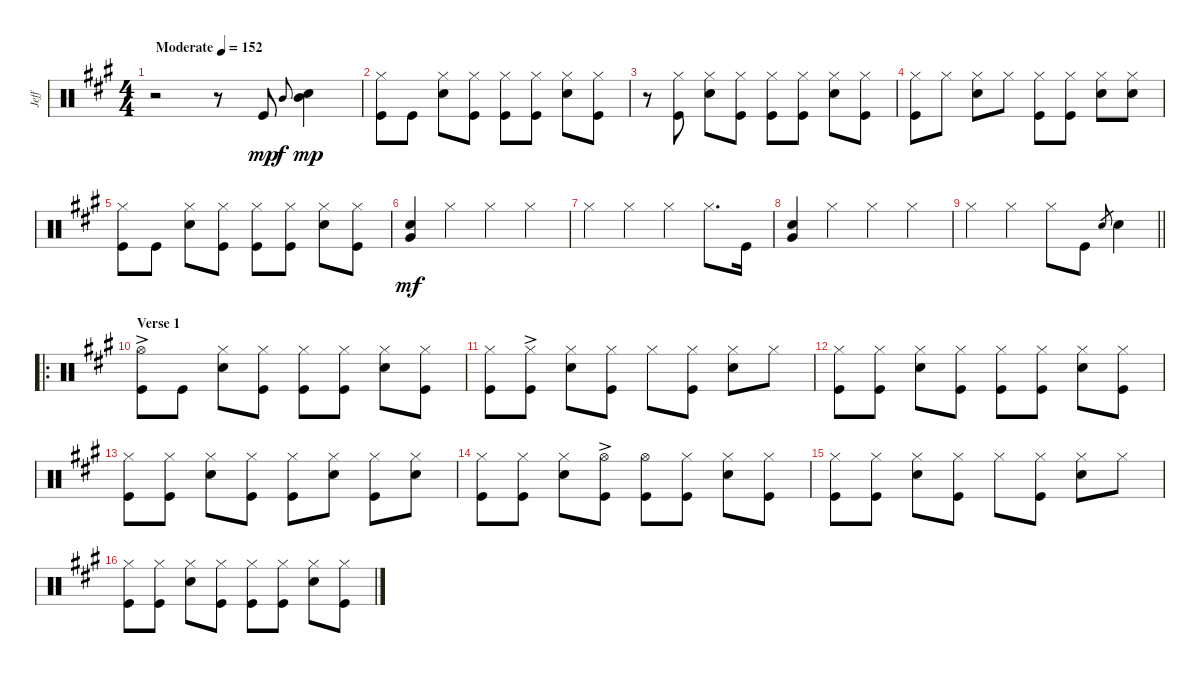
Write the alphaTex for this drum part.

\track ("Jeff" "Jeff") {instrument percussion}
\staff {score}
\articulation defaults
\ts (4 4)
\tempo (152 "Moderate")
\clef neutral
\ks a
r.2{dy mp} r.8 "Kick (hit)".8 "Mid Tom (hit)".8{gr onbeat dy f} ("Snare (hit) 2" "Mid Tom (hit)").4{dy mp} |
("Hi-Hat (closed)" "Kick (hit)").8 "Kick (hit)".8 ("Snare (hit) 2" "Hi-Hat (closed)").8 ("Hi-Hat (closed)" "Kick (hit)").8 ("Hi-Hat (closed)" "Kick (hit)").8 ("Hi-Hat (closed)" "Kick (hit)").8 ("Snare (hit) 2" "Hi-Hat (closed)").8 ("Hi-Hat (closed)" "Kick (hit)").8 |
r.8 ("Hi-Hat (closed)" "Kick (hit)").8 ("Snare (hit) 2" "Hi-Hat (closed)").8 ("Hi-Hat (closed)" "Kick (hit)").8 ("Hi-Hat (closed)" "Kick (hit)").8 ("Hi-Hat (closed)" "Kick (hit)").8 ("Snare (hit) 2" "Hi-Hat (closed)").8 ("Hi-Hat (closed)" "Kick (hit)").8 |
("Hi-Hat (closed)" "Kick (hit)").8 "Hi-Hat (closed)".8 ("Snare (hit) 2" "Hi-Hat (closed)").8 "Hi-Hat (closed)".8 ("Hi-Hat (closed)" "Kick (hit)").8 ("Hi-Hat (closed)" "Kick (hit)").8 ("Snare (hit) 2" "Hi-Hat (closed)").8 ("Snare (hit) 2" "Hi-Hat (closed)").8 |
("Hi-Hat (closed)" "Kick (hit)").8 "Kick (hit)".8 ("Snare (hit) 2" "Hi-Hat (closed)").8 ("Hi-Hat (closed)" "Kick (hit)").8 ("Hi-Hat (closed)" "Kick (hit)").8 ("Hi-Hat (closed)" "Kick (hit)").8 ("Snare (hit) 2" "Hi-Hat (closed)").8 ("Hi-Hat (closed)" "Kick (hit)").8 |
("Snare (hit) 2" "Very Low Tom (hit)").4{dy mf} "Hi-Hat (closed)".4 "Hi-Hat (closed)".4 "Hi-Hat (closed)".4 |
"Hi-Hat (closed)".4 "Hi-Hat (closed)".4 "Hi-Hat (closed)".4 "Hi-Hat (closed)".8{d} "Kick (hit)".16 |
("Snare (hit) 2" "Very Low Tom (hit)").4 "Hi-Hat (closed)".4 "Hi-Hat (closed)".4 "Hi-Hat (closed)".4 |
\barLineRight lightlight "Hi-Hat (closed)".4 "Hi-Hat (closed)".4 "Hi-Hat (closed)".8 "Kick (hit)".8 "Snare (hit) 2".8{gr} "Snare (hit) 2".4
|
\ro
\section ("" "Verse 1")
("Kick (hit)" "Hi-Hat (open)"{ac}).8 "Kick (hit)".8 ("Snare (hit) 2" "Hi-Hat (closed)").8 ("Kick (hit)" "Hi-Hat (closed)").8 ("Kick (hit)" "Hi-Hat (closed)").8 ("Kick (hit)" "Hi-Hat (closed)").8 ("Snare (hit) 2" "Hi-Hat (closed)").8 ("Kick (hit)" "Hi-Hat (closed)").8 |
("Kick (hit)" "Hi-Hat (closed)").8 ("Kick (hit)" "Hi-Hat (closed)"{ac}).8 ("Snare (hit) 2" "Hi-Hat (closed)").8 ("Kick (hit)" "Hi-Hat (closed)").8 "Hi-Hat (closed)".8 ("Kick (hit)" "Hi-Hat (closed)").8 ("Snare (hit) 2" "Hi-Hat (closed)").8 "Hi-Hat (closed)".8 |
("Hi-Hat (closed)" "Kick (hit)").8 ("Hi-Hat (closed)" "Kick (hit)").8 ("Hi-Hat (closed)" "Snare (hit) 2").8 ("Hi-Hat (closed)" "Kick (hit)").8 ("Hi-Hat (closed)" "Kick (hit)").8 ("Hi-Hat (closed)" "Kick (hit)").8 ("Hi-Hat (closed)" "Snare (hit) 2").8 ("Hi-Hat (closed)" "Kick (hit)").8 |
("Hi-Hat (closed)" "Kick (hit)").8 ("Hi-Hat (closed)" "Kick (hit)").8 ("Hi-Hat (closed)" "Snare (hit) 2").8 ("Hi-Hat (closed)" "Kick (hit)").8 ("Hi-Hat (closed)" "Kick (hit)").8 ("Hi-Hat (closed)" "Snare (hit) 2").8 ("Hi-Hat (closed)" "Kick (hit)").8 ("Hi-Hat (closed)" "Snare (hit) 2").8 |
("Hi-Hat (closed)" "Kick (hit)").8 ("Hi-Hat (closed)" "Kick (hit)").8 ("Hi-Hat (closed)" "Snare (hit) 2").8 ("Hi-Hat (open)"{ac} "Kick (hit)").8 ("Hi-Hat (open)" "Kick (hit)").8 ("Hi-Hat (closed)" "Kick (hit)").8 ("Hi-Hat (closed)" "Snare (hit) 2").8 ("Hi-Hat (closed)" "Kick (hit)").8 |
("Hi-Hat (closed)" "Kick (hit)").8 ("Hi-Hat (closed)" "Kick (hit)").8 ("Hi-Hat (closed)" "Snare (hit) 2").8 ("Hi-Hat (closed)" "Kick (hit)").8 "Hi-Hat (closed)".8 ("Hi-Hat (closed)" "Kick (hit)").8 ("Hi-Hat (closed)" "Snare (hit) 2").8 "Hi-Hat (closed)".8 |
("Hi-Hat (closed)" "Kick (hit)").8 ("Hi-Hat (closed)" "Kick (hit)").8 ("Hi-Hat (closed)" "Snare (hit) 2").8 ("Hi-Hat (closed)" "Kick (hit)").8 ("Hi-Hat (closed)" "Kick (hit)").8 ("Hi-Hat (closed)" "Kick (hit)").8 ("Hi-Hat (closed)" "Snare (hit) 2").8 ("Hi-Hat (closed)" "Kick (hit)").8
